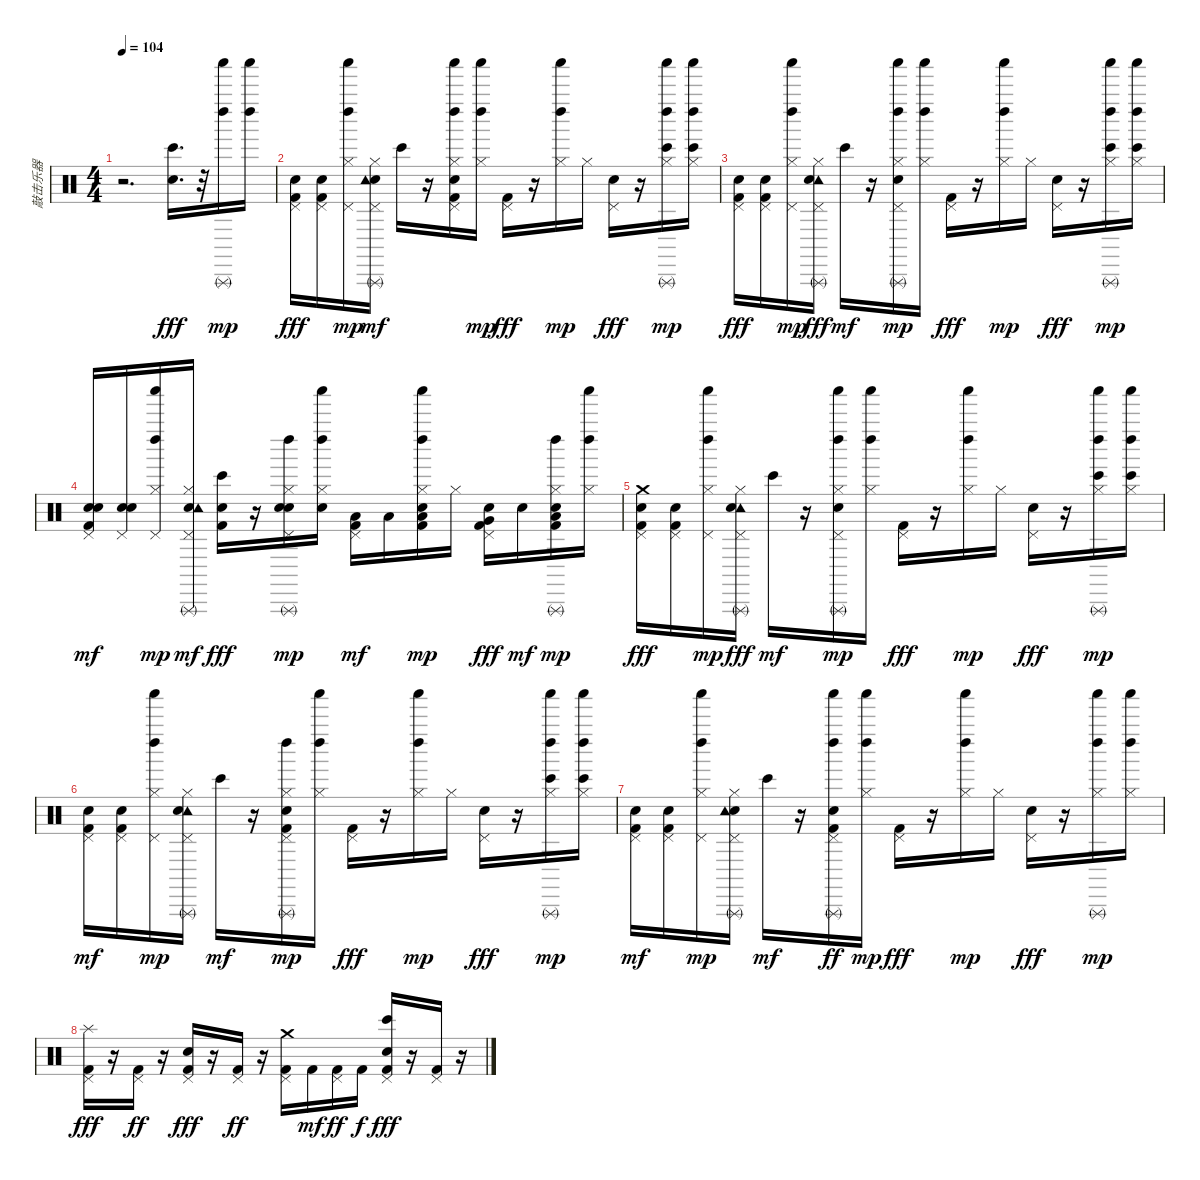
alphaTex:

\track ("敲击乐器" "敲击乐器") {instrument percussion}
\staff {score}
\articulation defaults
\ts (4 4)
\tempo 104
\clef neutral
\ks c
r.2{d dy fff} ("Snare (hit) 2" "Bongo High (hit)").16{d} r.32 ("Left Maraca (hit)" "Triangle (rnute)" "Shaker (hit)").16{dy mp} ("Left Maraca (hit)" "Shaker (hit)").16 |
("Hand Clap (hit)" "Kick (hit) 2" "Pedal Hi-Hat (hit)").16{dy fff} ("Hand Clap (hit)" "Kick (hit) 2" "Pedal Hi-Hat (hit)").16 ("Left Maraca (hit)" "Shaker (hit)" "Hi-Hat (closed)" "Pedal Hi-Hat (hit)").16{dy mp} ("Hi-Hat (closed)" "Snare (hit) 2" "Tambourine (hit)" "Pedal Hi-Hat (hit)" "Triangle (rnute)").16{dy mf} "Bongo High (hit)".16 r.16 ("Shaker (hit)" "Left Maraca (hit)" "Hi-Hat (closed)" "Kick (hit) 2" "Pedal Hi-Hat (hit)" "Hand Clap (hit)").16 ("Shaker (hit)" "Left Maraca (hit)" "Hi-Hat (closed)").16{dy mp} ("Kick (hit) 2" "Pedal Hi-Hat (hit)").16{dy fff} r.16 ("Shaker (hit)" "Left Maraca (hit)" "Hi-Hat (closed)").16{dy mp} "Hi-Hat (closed)".16 ("Snare (hit) 2" "Pedal Hi-Hat (hit)").16{dy fff} r.16 ("Bongo High (hit)" "Shaker (hit)" "Left Maraca (hit)" "Hi-Hat (closed)" "Triangle (rnute)").16{dy mp} ("Bongo High (hit)" "Shaker (hit)" "Left Maraca (hit)" "Hi-Hat (closed)").16 |
("Pedal Hi-Hat (hit)" "Hand Clap (hit)" "Kick (hit) 2").16{dy fff} ("Pedal Hi-Hat (hit)" "Hand Clap (hit)" "Kick (hit) 2").16 ("Hi-Hat (closed)" "Pedal Hi-Hat (hit)" "Shaker (hit)" "Left Maraca (hit)").16{dy mp} ("Hi-Hat (closed)" "Pedal Hi-Hat (hit)" "Tambourine (hit)" "Triangle (rnute)" "Snare (hit) 2").16{dy fff} "Bongo High (hit)".16{dy mf} r.16 ("Hi-Hat (closed)" "Pedal Hi-Hat (hit)" "Triangle (rnute)" "Left Maraca (hit)" "Shaker (hit)" "Hand Clap (hit)").16{dy mp} ("Hi-Hat (closed)" "Left Maraca (hit)" "Shaker (hit)").16 ("Pedal Hi-Hat (hit)" "Kick (hit) 2").16{dy fff} r.16 ("Hi-Hat (closed)" "Left Maraca (hit)" "Shaker (hit)").16{dy mp} "Hi-Hat (closed)".16 ("Pedal Hi-Hat (hit)" "Snare (hit) 2").16{dy fff} r.16 ("Bongo High (hit)" "Hi-Hat (closed)" "Triangle (rnute)" "Left Maraca (hit)" "Shaker (hit)").16{dy mp} ("Bongo High (hit)" "Hi-Hat (closed)" "Left Maraca (hit)" "Shaker (hit)").16 |
("Hand Clap (hit)" "Pedal Hi-Hat (hit)" "Kick (hit) 2" "Hand Clap (hit)").16{dy mf} ("Hand Clap (hit)" "Pedal Hi-Hat (hit)" "Hand Clap (hit)").16 ("Hi-Hat (closed)" "Pedal Hi-Hat (hit)" "Shaker (hit)" "Left Maraca (hit)").16{dy mp} ("Hand Clap (hit)" "Hi-Hat (closed)" "Triangle (rnute)" "Pedal Hi-Hat (hit)" "Tambourine (hit)").16{dy mf} ("Snare (hit) 2" "Bongo High (hit)" "Kick (hit) 2").16{dy fff} r.16 ("Hand Clap (hit)" "Hi-Hat (closed)" "Triangle (rnute)" "Hand Clap (hit)" "Pedal Hi-Hat (hit)" "Left Maraca (hit)").16{dy mp} ("Hand Clap (hit)" "Hi-Hat (closed)" "Left Maraca (hit)" "Shaker (hit)").16 ("Kick (hit) 2" "Pedal Hi-Hat (hit)" "Low Tom (hit)").16{dy mf} "Low Tom (hit)".16 ("Hand Clap (hit)" "Low Tom (hit)" "Kick (hit) 2" "Hi-Hat (closed)" "Left Maraca (hit)" "Shaker (hit)").16{dy mp} "Hi-Hat (closed)".16 ("Very Low Tom (hit)" "Snare (hit) 2" "Pedal Hi-Hat (hit)" "Kick (hit) 2").16{dy fff} "Hand Clap (hit)".16{dy mf} ("Hand Clap (hit)" "Low Floor Tom (hit)" "Kick (hit) 2" "Hi-Hat (closed)" "Triangle (rnute)" "Left Maraca (hit)").16{dy mp} ("Hi-Hat (closed)" "Left Maraca (hit)" "Shaker (hit)").16 |
("Crash medium (hit)" "Pedal Hi-Hat (hit)" "Hand Clap (hit)" "Kick (hit) 2").16{dy fff} ("Pedal Hi-Hat (hit)" "Hand Clap (hit)" "Kick (hit) 2").16 ("Pedal Hi-Hat (hit)" "Shaker (hit)" "Left Maraca (hit)" "Hi-Hat (closed)").16{dy mp} ("Pedal Hi-Hat (hit)" "Tambourine (hit)" "Triangle (rnute)" "Hi-Hat (closed)" "Snare (hit) 2").16{dy fff} "Bongo High (hit)".16{dy mf} r.16 ("Pedal Hi-Hat (hit)" "Triangle (rnute)" "Left Maraca (hit)" "Shaker (hit)" "Hand Clap (hit)" "Hi-Hat (closed)").16{dy mp} ("Left Maraca (hit)" "Shaker (hit)" "Hi-Hat (closed)").16 ("Pedal Hi-Hat (hit)" "Kick (hit) 2").16{dy fff} r.16 ("Left Maraca (hit)" "Shaker (hit)" "Hi-Hat (closed)").16{dy mp} "Hi-Hat (closed)".16 ("Pedal Hi-Hat (hit)" "Snare (hit) 2").16{dy fff} r.16 ("Triangle (rnute)" "Left Maraca (hit)" "Shaker (hit)" "Hi-Hat (closed)" "Bongo High (hit)").16{dy mp} ("Left Maraca (hit)" "Shaker (hit)" "Hi-Hat (closed)" "Bongo High (hit)").16 |
("Pedal Hi-Hat (hit)" "Kick (hit) 2" "Hand Clap (hit)").16{dy mf} ("Pedal Hi-Hat (hit)" "Kick (hit) 2" "Hand Clap (hit)").16 ("Pedal Hi-Hat (hit)" "Hi-Hat (closed)" "Shaker (hit)" "Left Maraca (hit)").16{dy mp} ("Triangle (rnute)" "Pedal Hi-Hat (hit)" "Tambourine (hit)" "Snare (hit) 2" "Hi-Hat (closed)").16 "Bongo High (hit)".16{dy mf} r.16 ("Triangle (rnute)" "Hand Clap (hit)" "Pedal Hi-Hat (hit)" "Kick (hit) 2" "Hi-Hat (closed)" "Left Maraca (hit)").16{dy mp} ("Hi-Hat (closed)" "Left Maraca (hit)" "Shaker (hit)").16 ("Pedal Hi-Hat (hit)" "Kick (hit) 2").16{dy fff} r.16 ("Hi-Hat (closed)" "Left Maraca (hit)" "Shaker (hit)").16{dy mp} "Hi-Hat (closed)".16 ("Pedal Hi-Hat (hit)" "Snare (hit) 2").16{dy fff} r.16 ("Triangle (rnute)" "Hi-Hat (closed)" "Left Maraca (hit)" "Shaker (hit)" "Bongo High (hit)").16{dy mp} ("Hi-Hat (closed)" "Left Maraca (hit)" "Shaker (hit)" "Bongo High (hit)").16 |
("Kick (hit) 2" "Hand Clap (hit)" "Pedal Hi-Hat (hit)").16{dy mf} ("Kick (hit) 2" "Hand Clap (hit)" "Pedal Hi-Hat (hit)").16 ("Left Maraca (hit)" "Shaker (hit)" "Pedal Hi-Hat (hit)" "Hi-Hat (closed)").16{dy mp} ("Snare (hit) 2" "Triangle (rnute)" "Tambourine (hit)" "Pedal Hi-Hat (hit)" "Hi-Hat (closed)").16 "Bongo High (hit)".16{dy mf} r.16 ("Kick (hit) 2" "Hand Clap (hit)" "Shaker (hit)" "Left Maraca (hit)" "Triangle (rnute)" "Pedal Hi-Hat (hit)").16{dy ff} ("Shaker (hit)" "Left Maraca (hit)" "Hi-Hat (closed)").16{dy mp} ("Kick (hit) 2" "Pedal Hi-Hat (hit)").16{dy fff} r.16 ("Shaker (hit)" "Left Maraca (hit)" "Hi-Hat (closed)").16{dy mp} "Hi-Hat (closed)".16 ("Snare (hit) 2" "Pedal Hi-Hat (hit)").16{dy fff} r.16 ("Shaker (hit)" "Left Maraca (hit)" "Triangle (rnute)" "Hi-Hat (closed)").16{dy mp} ("Shaker (hit)" "Left Maraca (hit)" "Hi-Hat (closed)").16 |
("Pedal Hi-Hat (hit)" "Splash (hit)" "Kick (hit) 2").16{dy fff} r.16 ("Pedal Hi-Hat (hit)" "Kick (hit) 2").16{dy ff} r.16 ("Pedal Hi-Hat (hit)" "Kick (hit) 2" "Snare (hit) 2").16{dy fff} r.16 ("Pedal Hi-Hat (hit)" "Kick (hit) 2").16{dy ff} r.16 ("Pedal Hi-Hat (hit)" "Crash medium (hit)" "Kick (hit) 2").16 "Kick (hit) 2".16{dy mf} ("Pedal Hi-Hat (hit)" "Kick (hit) 2").16{dy ff} "Kick (hit) 2".16{dy f} ("Pedal Hi-Hat (hit)" "Snare (hit) 2" "Kick (hit) 2" "Bongo High (hit)").16{dy fff} r.16 ("Kick (hit) 2" "Pedal Hi-Hat (hit)").16 r.16
